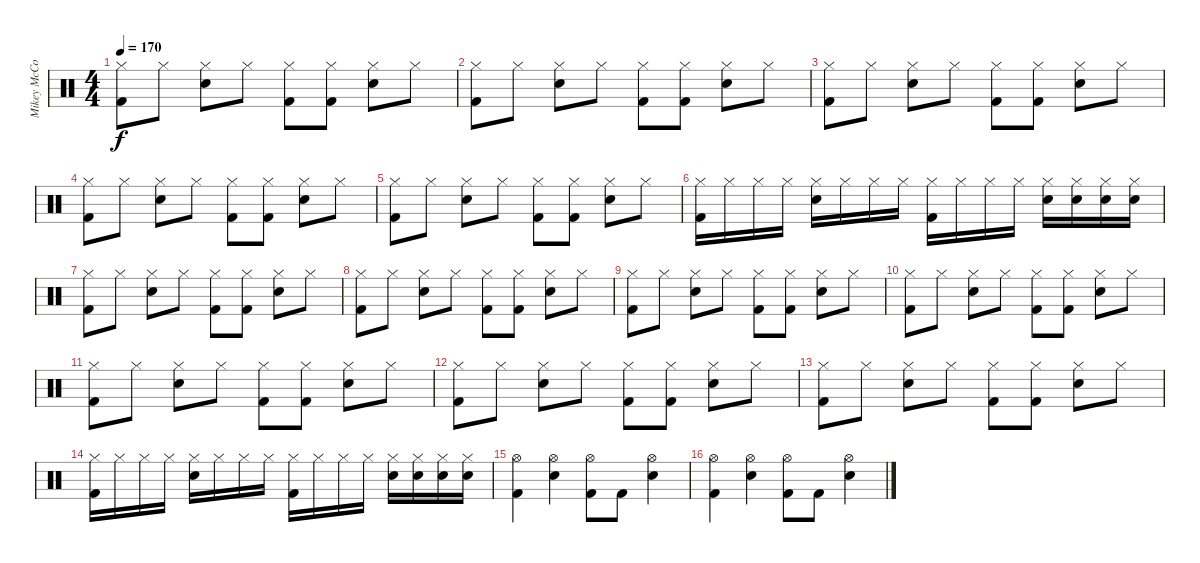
\track ("Mikey McCormack" "Mikey McCo") {instrument percussion}
\staff {score}
\articulation defaults
\ts (4 4)
\tempo 170
\clef neutral
\ks c
("Hi-Hat (closed)" "Kick (hit) 2").8{dy f} "Hi-Hat (closed)".8 ("Hi-Hat (closed)" "Electric Snare (hit)").8 "Hi-Hat (closed)".8 ("Hi-Hat (closed)" "Kick (hit) 2").8 ("Hi-Hat (closed)" "Kick (hit) 2").8 ("Hi-Hat (closed)" "Electric Snare (hit)").8 "Hi-Hat (closed)".8 |
("Hi-Hat (closed)" "Kick (hit) 2").8 "Hi-Hat (closed)".8 ("Hi-Hat (closed)" "Electric Snare (hit)").8 "Hi-Hat (closed)".8 ("Hi-Hat (closed)" "Kick (hit) 2").8 ("Hi-Hat (closed)" "Kick (hit) 2").8 ("Hi-Hat (closed)" "Electric Snare (hit)").8 "Hi-Hat (closed)".8 |
("Hi-Hat (closed)" "Kick (hit) 2").8 "Hi-Hat (closed)".8 ("Hi-Hat (closed)" "Electric Snare (hit)").8 "Hi-Hat (closed)".8 ("Hi-Hat (closed)" "Kick (hit) 2").8 ("Hi-Hat (closed)" "Kick (hit) 2").8 ("Hi-Hat (closed)" "Electric Snare (hit)").8 "Hi-Hat (closed)".8 |
("Hi-Hat (closed)" "Kick (hit) 2").8 "Hi-Hat (closed)".8 ("Hi-Hat (closed)" "Electric Snare (hit)").8 "Hi-Hat (closed)".8 ("Hi-Hat (closed)" "Kick (hit) 2").8 ("Hi-Hat (closed)" "Kick (hit) 2").8 ("Hi-Hat (closed)" "Electric Snare (hit)").8 "Hi-Hat (closed)".8 |
("Hi-Hat (closed)" "Kick (hit) 2").8 "Hi-Hat (closed)".8 ("Hi-Hat (closed)" "Electric Snare (hit)").8 "Hi-Hat (closed)".8 ("Hi-Hat (closed)" "Kick (hit) 2").8 ("Hi-Hat (closed)" "Kick (hit) 2").8 ("Hi-Hat (closed)" "Electric Snare (hit)").8 "Hi-Hat (closed)".8 |
("Hi-Hat (closed)" "Kick (hit) 2").16 "Hi-Hat (closed)".16 "Hi-Hat (closed)".16 "Hi-Hat (closed)".16 ("Hi-Hat (closed)" "Electric Snare (hit)").16 "Hi-Hat (closed)".16 "Hi-Hat (closed)".16 "Hi-Hat (closed)".16 ("Hi-Hat (closed)" "Kick (hit) 2").16 "Hi-Hat (closed)".16 "Hi-Hat (closed)".16 "Hi-Hat (closed)".16 ("Hi-Hat (closed)" "Electric Snare (hit)").16 ("Hi-Hat (closed)" "Electric Snare (hit)").16 ("Hi-Hat (closed)" "Electric Snare (hit)").16 ("Hi-Hat (closed)" "Electric Snare (hit)").16 |
("Hi-Hat (closed)" "Kick (hit) 2").8 "Hi-Hat (closed)".8 ("Hi-Hat (closed)" "Electric Snare (hit)").8 "Hi-Hat (closed)".8 ("Hi-Hat (closed)" "Kick (hit) 2").8 ("Hi-Hat (closed)" "Kick (hit) 2").8 ("Hi-Hat (closed)" "Electric Snare (hit)").8 "Hi-Hat (closed)".8 |
("Hi-Hat (closed)" "Kick (hit) 2").8 "Hi-Hat (closed)".8 ("Hi-Hat (closed)" "Electric Snare (hit)").8 "Hi-Hat (closed)".8 ("Hi-Hat (closed)" "Kick (hit) 2").8 ("Hi-Hat (closed)" "Kick (hit) 2").8 ("Hi-Hat (closed)" "Electric Snare (hit)").8 "Hi-Hat (closed)".8 |
("Hi-Hat (closed)" "Kick (hit) 2").8 "Hi-Hat (closed)".8 ("Hi-Hat (closed)" "Electric Snare (hit)").8 "Hi-Hat (closed)".8 ("Hi-Hat (closed)" "Kick (hit) 2").8 ("Hi-Hat (closed)" "Kick (hit) 2").8 ("Hi-Hat (closed)" "Electric Snare (hit)").8 "Hi-Hat (closed)".8 |
("Hi-Hat (closed)" "Kick (hit) 2").8 "Hi-Hat (closed)".8 ("Hi-Hat (closed)" "Electric Snare (hit)").8 "Hi-Hat (closed)".8 ("Hi-Hat (closed)" "Kick (hit) 2").8 ("Hi-Hat (closed)" "Kick (hit) 2").8 ("Hi-Hat (closed)" "Electric Snare (hit)").8 "Hi-Hat (closed)".8 |
("Hi-Hat (closed)" "Kick (hit) 2").8 "Hi-Hat (closed)".8 ("Hi-Hat (closed)" "Electric Snare (hit)").8 "Hi-Hat (closed)".8 ("Hi-Hat (closed)" "Kick (hit) 2").8 ("Hi-Hat (closed)" "Kick (hit) 2").8 ("Hi-Hat (closed)" "Electric Snare (hit)").8 "Hi-Hat (closed)".8 |
("Hi-Hat (closed)" "Kick (hit) 2").8 "Hi-Hat (closed)".8 ("Hi-Hat (closed)" "Electric Snare (hit)").8 "Hi-Hat (closed)".8 ("Hi-Hat (closed)" "Kick (hit) 2").8 ("Hi-Hat (closed)" "Kick (hit) 2").8 ("Hi-Hat (closed)" "Electric Snare (hit)").8 "Hi-Hat (closed)".8 |
("Hi-Hat (closed)" "Kick (hit) 2").8 "Hi-Hat (closed)".8 ("Hi-Hat (closed)" "Electric Snare (hit)").8 "Hi-Hat (closed)".8 ("Hi-Hat (closed)" "Kick (hit) 2").8 ("Hi-Hat (closed)" "Kick (hit) 2").8 ("Hi-Hat (closed)" "Electric Snare (hit)").8 "Hi-Hat (closed)".8 |
("Hi-Hat (closed)" "Kick (hit) 2").16 "Hi-Hat (closed)".16 "Hi-Hat (closed)".16 "Hi-Hat (closed)".16 ("Hi-Hat (closed)" "Electric Snare (hit)").16 "Hi-Hat (closed)".16 "Hi-Hat (closed)".16 "Hi-Hat (closed)".16 ("Hi-Hat (closed)" "Kick (hit) 2").16 "Hi-Hat (closed)".16 "Hi-Hat (closed)".16 "Hi-Hat (closed)".16 ("Hi-Hat (closed)" "Electric Snare (hit)").16 ("Hi-Hat (closed)" "Electric Snare (hit)").16 ("Hi-Hat (closed)" "Electric Snare (hit)").16 ("Hi-Hat (closed)" "Electric Snare (hit)").16 |
("Hi-Hat (open)" "Kick (hit) 2").4 ("Hi-Hat (open)" "Electric Snare (hit)").4 ("Hi-Hat (open)" "Kick (hit) 2").8 "Kick (hit) 2".8 ("Hi-Hat (open)" "Electric Snare (hit)").4 |
("Hi-Hat (open)" "Kick (hit) 2").4 ("Hi-Hat (open)" "Electric Snare (hit)").4 ("Hi-Hat (open)" "Kick (hit) 2").8 "Kick (hit) 2".8 ("Hi-Hat (open)" "Electric Snare (hit)").4
